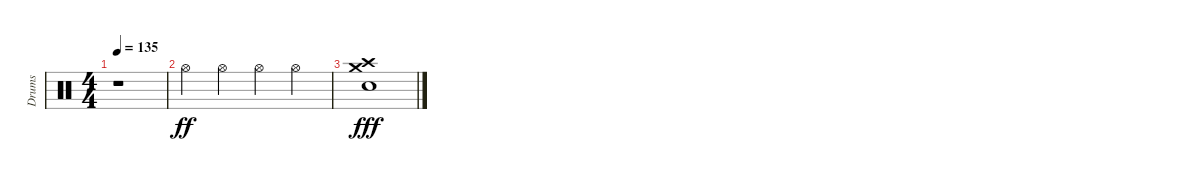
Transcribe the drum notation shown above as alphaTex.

\track ("Drums" "Drums") {instrument percussion}
\staff {score}
\articulation defaults
\ts (4 4)
\tempo 135
\clef neutral
\ks c
r.1{dy fff} |
"Hi-Hat (open)".4{dy ff} "Hi-Hat (open)".4 "Hi-Hat (open)".4 "Hi-Hat (open)".4 |
("Crash high (hit)" "Crash medium (hit)" "Electric Snare (hit)").1{dy fff}
